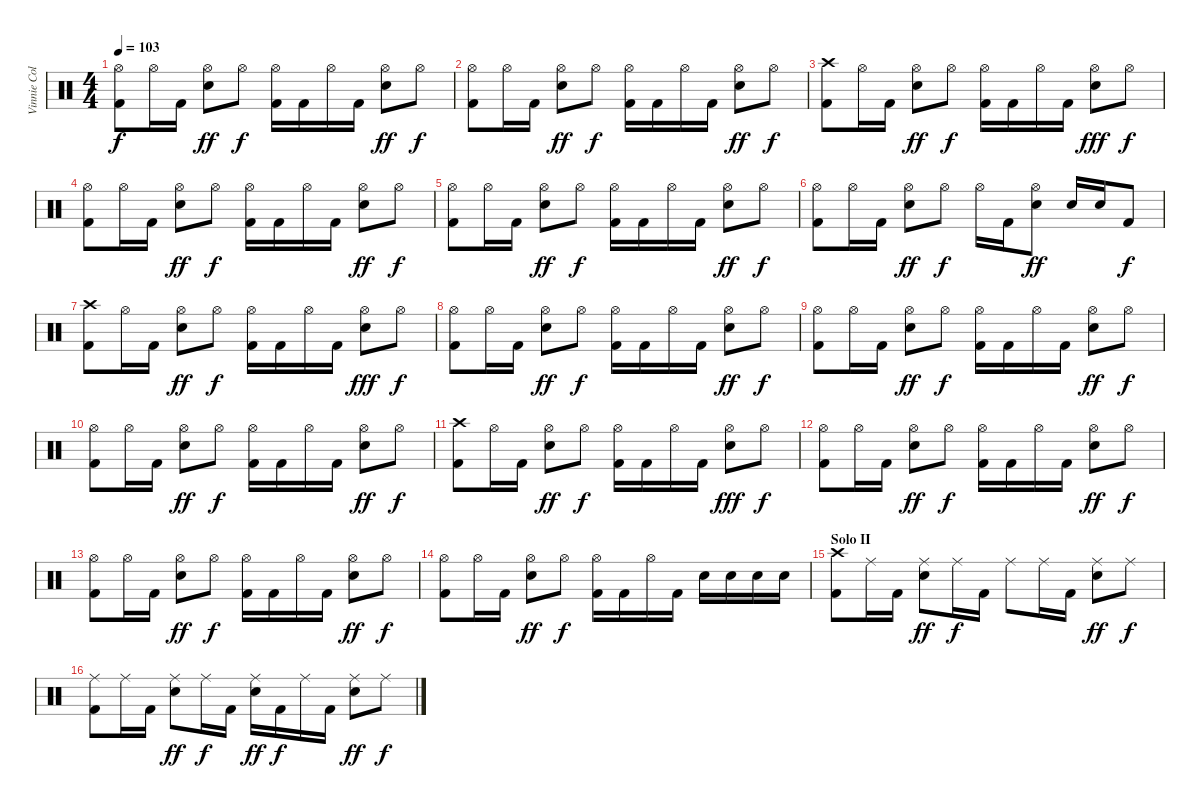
\track ("Vinnie Colaiuta" "Vinnie Col") {instrument percussion}
\staff {score}
\articulation defaults
\ts (4 4)
\tempo 103
\clef neutral
\ks c
("Hi-Hat (open)" "Kick (hit) 2").8{dy f} "Hi-Hat (open)".16 "Kick (hit) 2".16 ("Hi-Hat (open)" "Electric Snare (hit)").8{dy ff} "Hi-Hat (open)".8{dy f} ("Hi-Hat (open)" "Kick (hit) 2").16 "Kick (hit) 2".16 "Hi-Hat (open)".16 "Kick (hit) 2".16 ("Hi-Hat (open)" "Electric Snare (hit)").8{dy ff} "Hi-Hat (open)".8{dy f} |
("Hi-Hat (open)" "Kick (hit) 2").8 "Hi-Hat (open)".16 "Kick (hit) 2".16 ("Hi-Hat (open)" "Electric Snare (hit)").8{dy ff} "Hi-Hat (open)".8{dy f} ("Hi-Hat (open)" "Kick (hit) 2").16 "Kick (hit) 2".16 "Hi-Hat (open)".16 "Kick (hit) 2".16 ("Hi-Hat (open)" "Electric Snare (hit)").8{dy ff} "Hi-Hat (open)".8{dy f} |
("Crash high (hit)" "Kick (hit) 2").8 "Hi-Hat (open)".16 "Kick (hit) 2".16 ("Hi-Hat (open)" "Electric Snare (hit)").8{dy ff} "Hi-Hat (open)".8{dy f} ("Hi-Hat (open)" "Kick (hit) 2").16 "Kick (hit) 2".16 "Hi-Hat (open)".16 "Kick (hit) 2".16 ("Hi-Hat (open)" "Electric Snare (hit)").8{dy fff} "Hi-Hat (open)".8{dy f} |
("Hi-Hat (open)" "Kick (hit) 2").8 "Hi-Hat (open)".16 "Kick (hit) 2".16 ("Hi-Hat (open)" "Electric Snare (hit)").8{dy ff} "Hi-Hat (open)".8{dy f} ("Hi-Hat (open)" "Kick (hit) 2").16 "Kick (hit) 2".16 "Hi-Hat (open)".16 "Kick (hit) 2".16 ("Hi-Hat (open)" "Electric Snare (hit)").8{dy ff} "Hi-Hat (open)".8{dy f} |
("Hi-Hat (open)" "Kick (hit) 2").8 "Hi-Hat (open)".16 "Kick (hit) 2".16 ("Hi-Hat (open)" "Electric Snare (hit)").8{dy ff} "Hi-Hat (open)".8{dy f} ("Hi-Hat (open)" "Kick (hit) 2").16 "Kick (hit) 2".16 "Hi-Hat (open)".16 "Kick (hit) 2".16 ("Hi-Hat (open)" "Electric Snare (hit)").8{dy ff} "Hi-Hat (open)".8{dy f} |
("Hi-Hat (open)" "Kick (hit) 2").8 "Hi-Hat (open)".16 "Kick (hit) 2".16 ("Hi-Hat (open)" "Electric Snare (hit)").8{dy ff} "Hi-Hat (open)".8{dy f} "Hi-Hat (open)".16 "Kick (hit) 2".16 ("Hi-Hat (open)" "Electric Snare (hit)").8{dy ff} "Electric Snare (hit)".16 "Electric Snare (hit)".16 "Kick (hit) 2".8{dy f} |
("Crash high (hit)" "Kick (hit) 2").8 "Hi-Hat (open)".16 "Kick (hit) 2".16 ("Hi-Hat (open)" "Electric Snare (hit)").8{dy ff} "Hi-Hat (open)".8{dy f} ("Hi-Hat (open)" "Kick (hit) 2").16 "Kick (hit) 2".16 "Hi-Hat (open)".16 "Kick (hit) 2".16 ("Hi-Hat (open)" "Electric Snare (hit)").8{dy fff} "Hi-Hat (open)".8{dy f} |
("Hi-Hat (open)" "Kick (hit) 2").8 "Hi-Hat (open)".16 "Kick (hit) 2".16 ("Hi-Hat (open)" "Electric Snare (hit)").8{dy ff} "Hi-Hat (open)".8{dy f} ("Hi-Hat (open)" "Kick (hit) 2").16 "Kick (hit) 2".16 "Hi-Hat (open)".16 "Kick (hit) 2".16 ("Hi-Hat (open)" "Electric Snare (hit)").8{dy ff} "Hi-Hat (open)".8{dy f} |
("Hi-Hat (open)" "Kick (hit) 2").8 "Hi-Hat (open)".16 "Kick (hit) 2".16 ("Hi-Hat (open)" "Electric Snare (hit)").8{dy ff} "Hi-Hat (open)".8{dy f} ("Hi-Hat (open)" "Kick (hit) 2").16 "Kick (hit) 2".16 "Hi-Hat (open)".16 "Kick (hit) 2".16 ("Hi-Hat (open)" "Electric Snare (hit)").8{dy ff} "Hi-Hat (open)".8{dy f} |
("Hi-Hat (open)" "Kick (hit) 2").8 "Hi-Hat (open)".16 "Kick (hit) 2".16 ("Hi-Hat (open)" "Electric Snare (hit)").8{dy ff} "Hi-Hat (open)".8{dy f} ("Hi-Hat (open)" "Kick (hit) 2").16 "Kick (hit) 2".16 "Hi-Hat (open)".16 "Kick (hit) 2".16 ("Hi-Hat (open)" "Electric Snare (hit)").8{dy ff} "Hi-Hat (open)".8{dy f} |
("Crash high (hit)" "Kick (hit) 2").8 "Hi-Hat (open)".16 "Kick (hit) 2".16 ("Hi-Hat (open)" "Electric Snare (hit)").8{dy ff} "Hi-Hat (open)".8{dy f} ("Hi-Hat (open)" "Kick (hit) 2").16 "Kick (hit) 2".16 "Hi-Hat (open)".16 "Kick (hit) 2".16 ("Hi-Hat (open)" "Electric Snare (hit)").8{dy fff} "Hi-Hat (open)".8{dy f} |
("Hi-Hat (open)" "Kick (hit) 2").8 "Hi-Hat (open)".16 "Kick (hit) 2".16 ("Hi-Hat (open)" "Electric Snare (hit)").8{dy ff} "Hi-Hat (open)".8{dy f} ("Hi-Hat (open)" "Kick (hit) 2").16 "Kick (hit) 2".16 "Hi-Hat (open)".16 "Kick (hit) 2".16 ("Hi-Hat (open)" "Electric Snare (hit)").8{dy ff} "Hi-Hat (open)".8{dy f} |
("Hi-Hat (open)" "Kick (hit) 2").8 "Hi-Hat (open)".16 "Kick (hit) 2".16 ("Hi-Hat (open)" "Electric Snare (hit)").8{dy ff} "Hi-Hat (open)".8{dy f} ("Hi-Hat (open)" "Kick (hit) 2").16 "Kick (hit) 2".16 "Hi-Hat (open)".16 "Kick (hit) 2".16 ("Hi-Hat (open)" "Electric Snare (hit)").8{dy ff} "Hi-Hat (open)".8{dy f} |
("Hi-Hat (open)" "Kick (hit) 2").8 "Hi-Hat (open)".16 "Kick (hit) 2".16 ("Hi-Hat (open)" "Electric Snare (hit)").8{dy ff} "Hi-Hat (open)".8{dy f} ("Hi-Hat (open)" "Kick (hit) 2").16 "Kick (hit) 2".16 "Hi-Hat (open)".16 "Kick (hit) 2".16 "Electric Snare (hit)".16 "Electric Snare (hit)".16 "Electric Snare (hit)".16 "Electric Snare (hit)".16 |
\section ("" "Solo II")
("Crash high (hit)" "Kick (hit) 2").8 "Ride (middle)".16 "Kick (hit) 2".16 ("Ride (middle)" "Electric Snare (hit)").8{dy ff} "Ride (middle)".16{dy f} "Kick (hit) 2".16 "Ride (middle)".8 "Ride (middle)".16 "Kick (hit) 2".16 ("Ride (middle)" "Electric Snare (hit)").8{dy ff} "Ride (middle)".8{dy f} |
("Ride (middle)" "Kick (hit) 2").8 "Ride (middle)".16 "Kick (hit) 2".16 ("Ride (middle)" "Electric Snare (hit)").8{dy ff} "Ride (middle)".16{dy f} "Kick (hit) 2".16 ("Ride (middle)" "Electric Snare (hit)").16{dy ff} "Kick (hit) 2".16{dy f} "Ride (middle)".16 "Kick (hit) 2".16 ("Ride (middle)" "Electric Snare (hit)").8{dy ff} "Ride (middle)".8{dy f}
